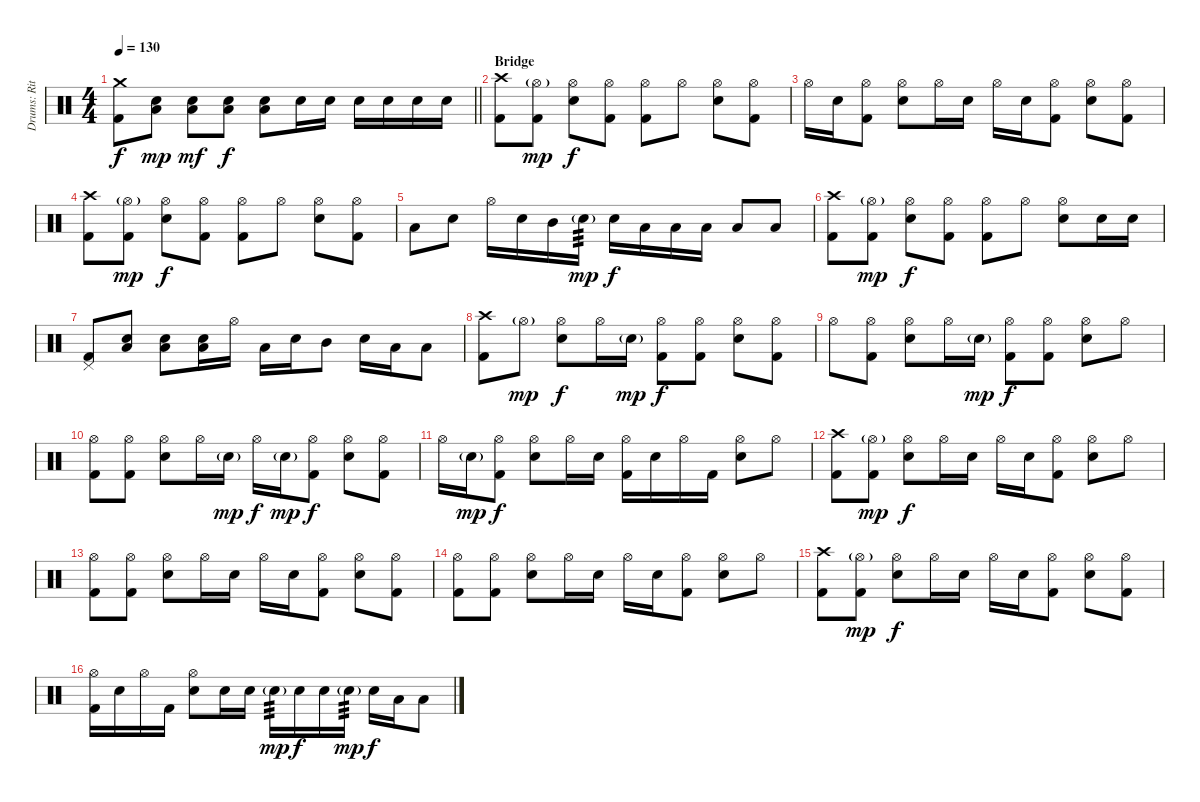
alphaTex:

\track ("Drums: Ritsu Tainaka" "Drums: Rit") {instrument percussion}
\staff {score}
\articulation defaults
\ts (4 4)
\tempo 130
\clef neutral
\barLineRight lightlight
\ks c
("Crash medium (hit)" "Kick (hit) 2").8{dy f} ("Electric Snare (hit)" "Low Floor Tom (hit)").8{dy mp} ("Electric Snare (hit)" "Low Floor Tom (hit)").8{dy mf} ("Electric Snare (hit)" "Low Floor Tom (hit)").8{dy f} ("Electric Snare (hit)" "Low Floor Tom (hit)").8 "Electric Snare (hit)".16 "Electric Snare (hit)".16 "Electric Snare (hit)".16 "Electric Snare (hit)".16 "Electric Snare (hit)".16 "Electric Snare (hit)".16 |
\section ("" "Bridge")
("Crash high (hit)" "Kick (hit) 2").8 ("Hi-Hat (open)"{g} "Kick (hit) 2").8{dy mp} ("Hi-Hat (open)" "Electric Snare (hit)").8{dy f} ("Hi-Hat (open)" "Kick (hit) 2").8 ("Hi-Hat (open)" "Kick (hit) 2").8 "Hi-Hat (open)".8 ("Hi-Hat (open)" "Electric Snare (hit)").8 ("Hi-Hat (open)" "Kick (hit) 2").8 |
"Hi-Hat (open)".16 "Electric Snare (hit)".16 ("Hi-Hat (open)" "Kick (hit) 2").8 ("Hi-Hat (open)" "Electric Snare (hit)").8 "Hi-Hat (open)".16 "Electric Snare (hit)".16 "Hi-Hat (open)".16 "Electric Snare (hit)".16 ("Hi-Hat (open)" "Kick (hit) 2").8 ("Hi-Hat (open)" "Electric Snare (hit)").8 ("Hi-Hat (open)" "Kick (hit) 2").8 |
("Crash high (hit)" "Kick (hit) 2").8 ("Hi-Hat (open)"{g} "Kick (hit) 2").8{dy mp} ("Hi-Hat (open)" "Electric Snare (hit)").8{dy f} ("Hi-Hat (open)" "Kick (hit) 2").8 ("Hi-Hat (open)" "Kick (hit) 2").8 "Hi-Hat (open)".8 ("Hi-Hat (open)" "Electric Snare (hit)").8 ("Hi-Hat (open)" "Kick (hit) 2").8 |
"Low Tom (hit)".8 "Electric Snare (hit)".8 "Hi-Hat (open)".16 "Electric Snare (hit)".16 "Mid Tom (hit)".16 "Electric Snare (hit)"{g}.16{tp 3 dy mp} "Electric Snare (hit)".16{dy f} "Low Tom (hit)".16 "Low Tom (hit)".16 "Low Floor Tom (hit)".16 "Low Floor Tom (hit)".8 "Low Floor Tom (hit)".8 |
("Crash high (hit)" "Kick (hit) 2").8 ("Hi-Hat (open)"{g} "Kick (hit) 2").8{dy mp} ("Hi-Hat (open)" "Electric Snare (hit)").8{dy f} ("Hi-Hat (open)" "Kick (hit) 2").8 ("Hi-Hat (open)" "Kick (hit) 2").8 "Hi-Hat (open)".8 ("Hi-Hat (open)" "Electric Snare (hit)").8 "Electric Snare (hit)".16 "Electric Snare (hit)".16 |
("Pedal Hi-Hat (hit)" "Kick (hit) 2").8 ("Electric Snare (hit)" "Low Floor Tom (hit)").8 ("Electric Snare (hit)" "Low Floor Tom (hit)").8 ("Electric Snare (hit)" "Low Floor Tom (hit)").16 "Hi-Hat (open)".16 "Low Floor Tom (hit)".16 "Electric Snare (hit)".16 "Mid Tom (hit)".8 "Electric Snare (hit)".16 "Low Tom (hit)".16 "Low Floor Tom (hit)".8 |
("Crash high (hit)" "Kick (hit) 2").8 "Hi-Hat (open)"{g}.8{dy mp} ("Hi-Hat (open)" "Electric Snare (hit)").8{dy f} "Hi-Hat (open)".16 "Electric Snare (hit)"{g}.16{dy mp} ("Hi-Hat (open)" "Kick (hit) 2").8{dy f} ("Hi-Hat (open)" "Kick (hit) 2").8 ("Hi-Hat (open)" "Electric Snare (hit)").8 ("Hi-Hat (open)" "Kick (hit) 2").8 |
"Hi-Hat (open)".8 ("Hi-Hat (open)" "Kick (hit) 2").8 ("Hi-Hat (open)" "Electric Snare (hit)").8 "Hi-Hat (open)".16 "Electric Snare (hit)"{g}.16{dy mp} ("Hi-Hat (open)" "Kick (hit) 2").8{dy f} ("Hi-Hat (open)" "Kick (hit) 2").8 ("Hi-Hat (open)" "Electric Snare (hit)").8 "Hi-Hat (open)".8 |
("Hi-Hat (open)" "Kick (hit) 2").8 ("Hi-Hat (open)" "Kick (hit) 2").8 ("Hi-Hat (open)" "Electric Snare (hit)").8 "Hi-Hat (open)".16 "Electric Snare (hit)"{g}.16{dy mp} "Hi-Hat (open)".16{dy f} "Electric Snare (hit)"{g}.16{dy mp} ("Hi-Hat (open)" "Kick (hit) 2").8{dy f} ("Hi-Hat (open)" "Electric Snare (hit)").8 ("Hi-Hat (open)" "Kick (hit) 2").8 |
"Hi-Hat (open)".16 "Electric Snare (hit)"{g}.16{dy mp} ("Hi-Hat (open)" "Kick (hit) 2").8{dy f} ("Hi-Hat (open)" "Electric Snare (hit)").8 "Hi-Hat (open)".16 "Electric Snare (hit)".16 ("Hi-Hat (open)" "Kick (hit) 2").16 "Electric Snare (hit)".16 "Hi-Hat (open)".16 "Kick (hit) 2".16 ("Hi-Hat (open)" "Electric Snare (hit)").8 "Hi-Hat (open)".8 |
("Crash high (hit)" "Kick (hit) 2").8 ("Hi-Hat (open)"{g} "Kick (hit) 2").8{dy mp} ("Hi-Hat (open)" "Electric Snare (hit)").8{dy f} "Hi-Hat (open)".16 "Electric Snare (hit)".16 "Hi-Hat (open)".16 "Electric Snare (hit)".16 ("Hi-Hat (open)" "Kick (hit) 2").8 ("Hi-Hat (open)" "Electric Snare (hit)").8 "Hi-Hat (open)".8 |
("Hi-Hat (open)" "Kick (hit) 2").8 ("Hi-Hat (open)" "Kick (hit) 2").8 ("Hi-Hat (open)" "Electric Snare (hit)").8 "Hi-Hat (open)".16 "Electric Snare (hit)".16 "Hi-Hat (open)".16 "Electric Snare (hit)".16 ("Hi-Hat (open)" "Kick (hit) 2").8 ("Hi-Hat (open)" "Electric Snare (hit)").8 ("Hi-Hat (open)" "Kick (hit) 2").8 |
("Hi-Hat (open)" "Kick (hit) 2").8 ("Hi-Hat (open)" "Kick (hit) 2").8 ("Hi-Hat (open)" "Electric Snare (hit)").8 "Hi-Hat (open)".16 "Electric Snare (hit)".16 "Hi-Hat (open)".16 "Electric Snare (hit)".16 ("Hi-Hat (open)" "Kick (hit) 2").8 ("Hi-Hat (open)" "Electric Snare (hit)").8 "Hi-Hat (open)".8 |
("Crash high (hit)" "Kick (hit) 2").8 ("Hi-Hat (open)"{g} "Kick (hit) 2").8{dy mp} ("Hi-Hat (open)" "Electric Snare (hit)").8{dy f} "Hi-Hat (open)".16 "Electric Snare (hit)".16 "Hi-Hat (open)".16 "Electric Snare (hit)".16 ("Hi-Hat (open)" "Kick (hit) 2").8 ("Hi-Hat (open)" "Electric Snare (hit)").8 ("Hi-Hat (open)" "Kick (hit) 2").8 |
("Hi-Hat (open)" "Kick (hit) 2").16 "Electric Snare (hit)".16 "Hi-Hat (open)".16 "Kick (hit) 2".16 ("Hi-Hat (open)" "Electric Snare (hit)").8 "Electric Snare (hit)".16 "Electric Snare (hit)".16 "Electric Snare (hit)"{g}.16{tp 3 dy mp} "Electric Snare (hit)".16{dy f} "Electric Snare (hit)".16 "Electric Snare (hit)"{g}.16{tp 3 dy mp} "Electric Snare (hit)".16{dy f} "Low Tom (hit)".16 "Low Floor Tom (hit)".8
